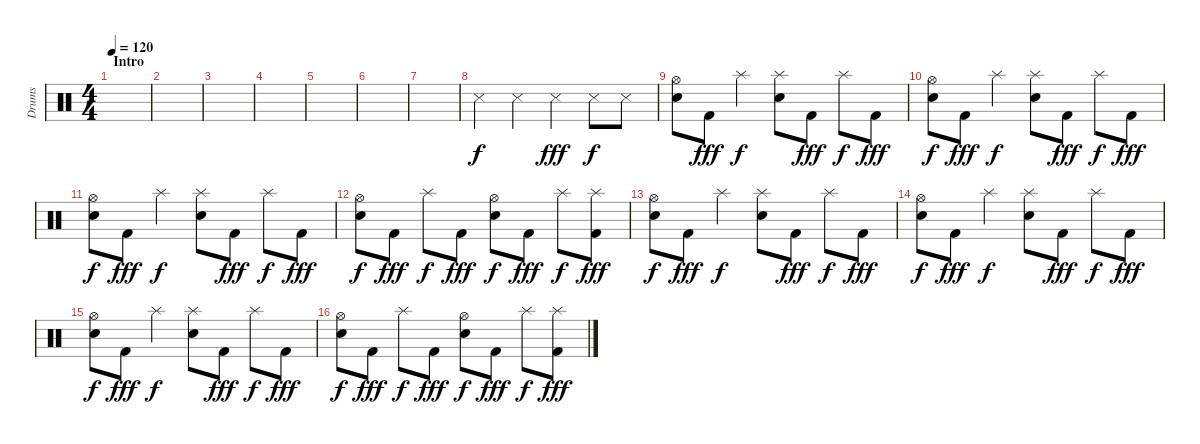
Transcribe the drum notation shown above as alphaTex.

\track ("Drums" "Drums") {instrument percussion}
\staff {score}
\articulation defaults
\ts (4 4)
\section ("" "Intro")
\tempo 120
\clef neutral
\ks c
|
|
|
|
|
|
|
"Snare (side stick) 3".4 "Snare (side stick) 3".4{dy f} "Snare (side stick) 3".4{dy fff} "Snare (side stick) 3".8{dy f} "Snare (side stick) 3".8 |
("Hi-Hat (open)" "Electric Snare (hit)").8 "Kick (hit) 2".8{dy fff} "Splash (hit)".4{dy f} ("Splash (hit)" "Electric Snare (hit)").8 "Kick (hit) 2".8{dy fff} "Splash (hit)".8{dy f} "Kick (hit) 2".8{dy fff} |
("Hi-Hat (open)" "Electric Snare (hit)").8{dy f} "Kick (hit) 2".8{dy fff} "Splash (hit)".4{dy f} ("Splash (hit)" "Electric Snare (hit)").8 "Kick (hit) 2".8{dy fff} "Splash (hit)".8{dy f} "Kick (hit) 2".8{dy fff} |
("Hi-Hat (open)" "Electric Snare (hit)").8{dy f} "Kick (hit) 2".8{dy fff} "Splash (hit)".4{dy f} ("Splash (hit)" "Electric Snare (hit)").8 "Kick (hit) 2".8{dy fff} "Splash (hit)".8{dy f} "Kick (hit) 2".8{dy fff} |
("Hi-Hat (open)" "Electric Snare (hit)").8{dy f} "Kick (hit) 2".8{dy fff} "Splash (hit)".8{dy f} "Kick (hit) 2".8{dy fff} ("Hi-Hat (open)" "Electric Snare (hit)").8{dy f} "Kick (hit) 2".8{dy fff} "Splash (hit)".8{dy f} ("Splash (hit)" "Kick (hit) 2").8{dy fff} |
("Hi-Hat (open)" "Electric Snare (hit)").8{dy f} "Kick (hit) 2".8{dy fff} "Splash (hit)".4{dy f} ("Splash (hit)" "Electric Snare (hit)").8 "Kick (hit) 2".8{dy fff} "Splash (hit)".8{dy f} "Kick (hit) 2".8{dy fff} |
("Hi-Hat (open)" "Electric Snare (hit)").8{dy f} "Kick (hit) 2".8{dy fff} "Splash (hit)".4{dy f} ("Splash (hit)" "Electric Snare (hit)").8 "Kick (hit) 2".8{dy fff} "Splash (hit)".8{dy f} "Kick (hit) 2".8{dy fff} |
("Hi-Hat (open)" "Electric Snare (hit)").8{dy f} "Kick (hit) 2".8{dy fff} "Splash (hit)".4{dy f} ("Splash (hit)" "Electric Snare (hit)").8 "Kick (hit) 2".8{dy fff} "Splash (hit)".8{dy f} "Kick (hit) 2".8{dy fff} |
("Hi-Hat (open)" "Electric Snare (hit)").8{dy f} "Kick (hit) 2".8{dy fff} "Splash (hit)".8{dy f} "Kick (hit) 2".8{dy fff} ("Hi-Hat (open)" "Electric Snare (hit)").8{dy f} "Kick (hit) 2".8{dy fff} "Splash (hit)".8{dy f} ("Splash (hit)" "Kick (hit) 2").8{dy fff}
